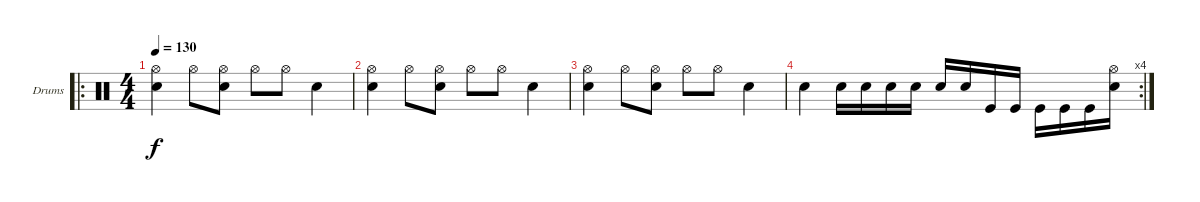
\defaultSystemsLayout 4
\bracketExtendMode groupsimilarinstruments
\firstSystemTrackNameOrientation horizontal
\otherSystemsTrackNameOrientation horizontal
\track ("Drumkit" "Drums") {instrument percussion}
\staff {score}
\articulation defaults
\ro
\ts (4 4)
\tempo 130
\clef neutral
\ks c
("Snare (hit) 2" "Hi-Hat (open)").4{dy f} "Hi-Hat (open)".8 ("Hi-Hat (open)" "Snare (hit) 2").8 "Hi-Hat (open)".8 "Hi-Hat (open)".8 "Snare (hit) 2".4 |
("Snare (hit) 2" "Hi-Hat (open)").4 "Hi-Hat (open)".8 ("Hi-Hat (open)" "Snare (hit) 2").8 "Hi-Hat (open)".8 "Hi-Hat (open)".8 "Snare (hit) 2".4 |
("Snare (hit) 2" "Hi-Hat (open)").4 "Hi-Hat (open)".8 ("Hi-Hat (open)" "Snare (hit) 2").8 "Hi-Hat (open)".8 "Hi-Hat (open)".8 "Snare (hit) 2".4 |
\rc 4 "Snare (hit) 2".4 "Snare (hit) 2".16 "Snare (hit) 2".16 "Snare (hit) 2".16 "Snare (hit) 2".16 "Snare (hit) 2".16 "Snare (hit) 2".16 "Kick (hit)".16 "Kick (hit)".16 "Kick (hit)".16 "Kick (hit)".16 "Kick (hit)".16
("Snare (hit) 2" "Hi-Hat (open)").16
